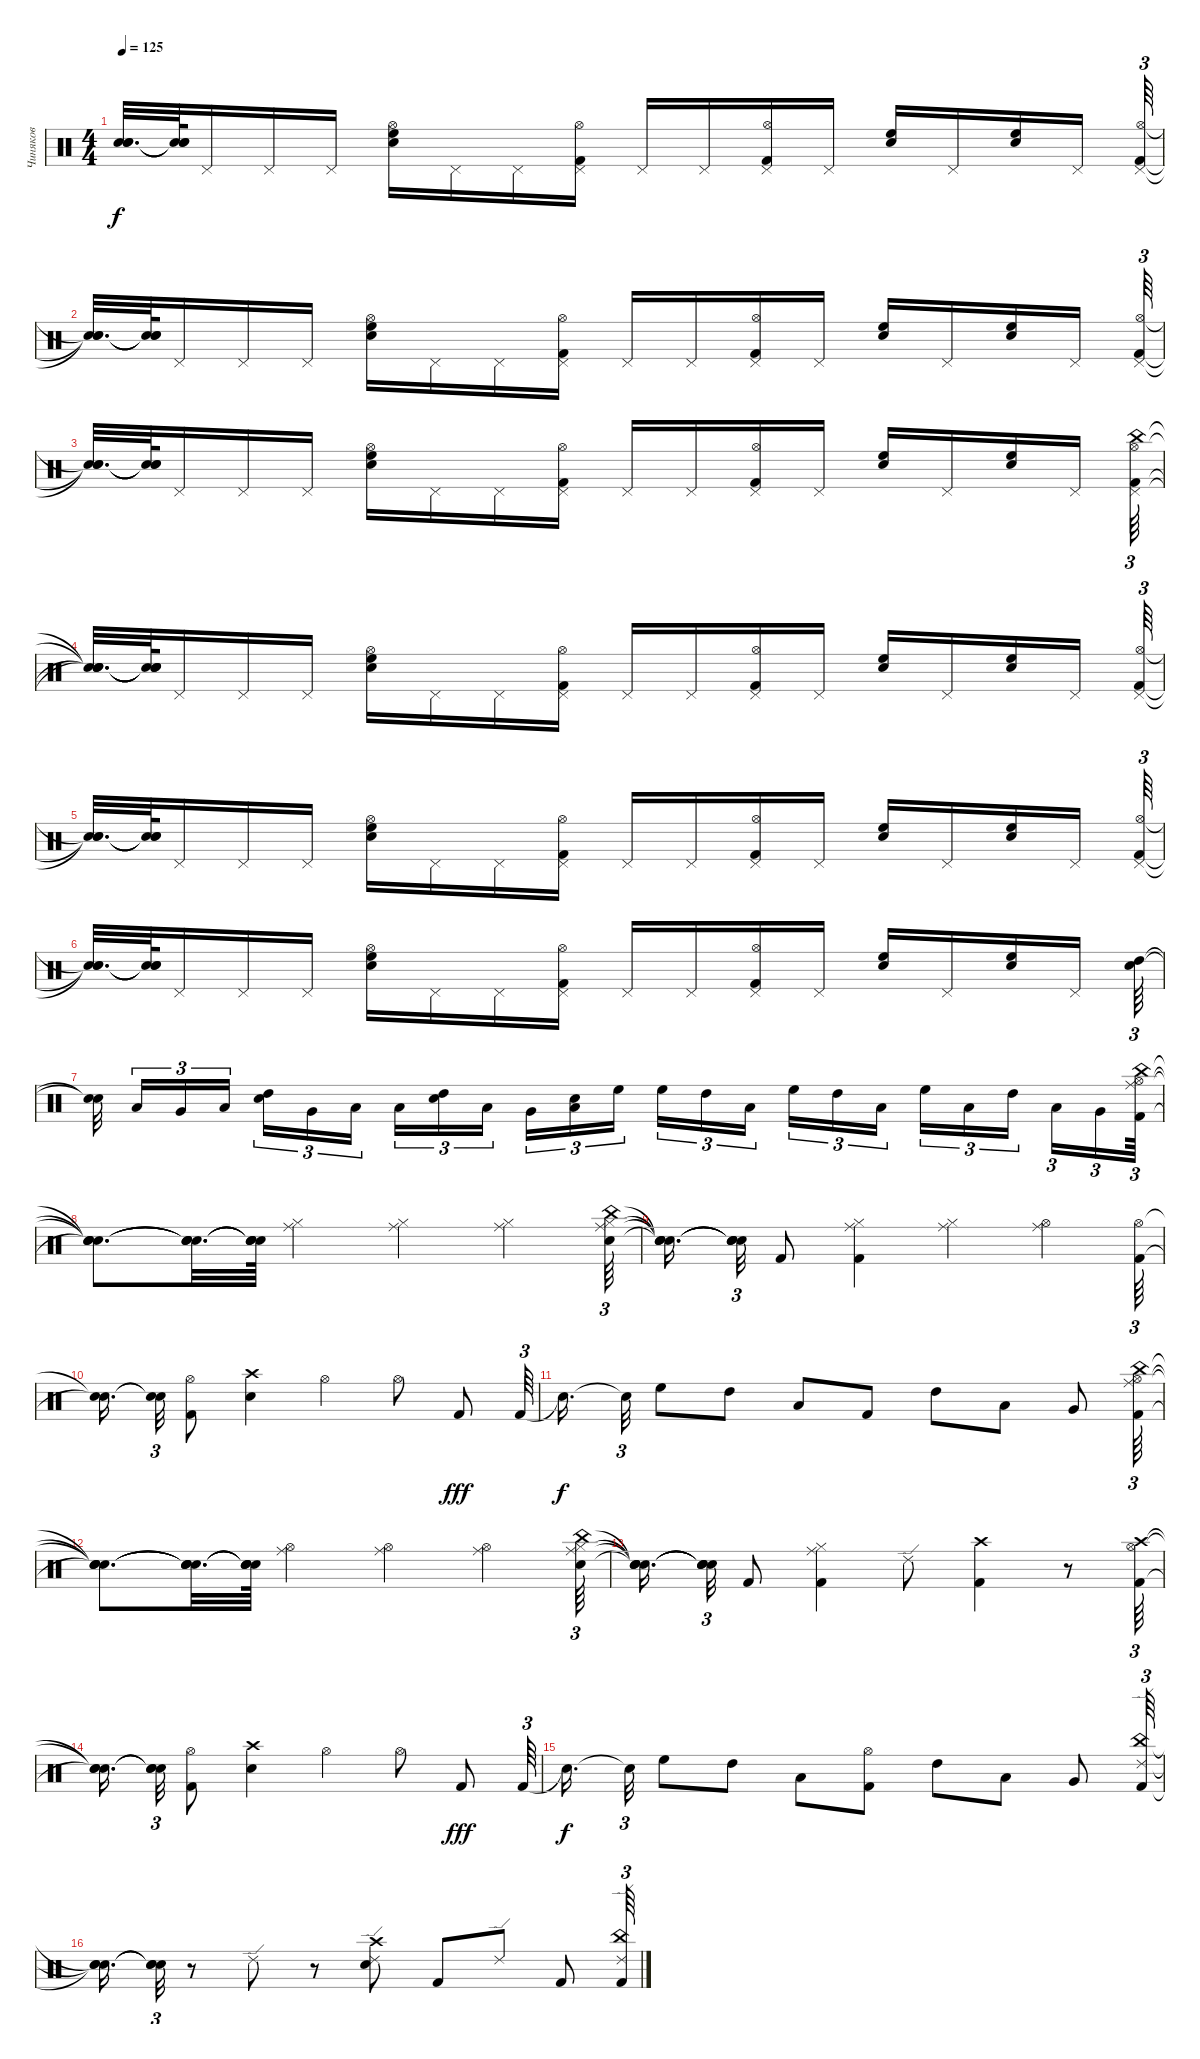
\track ("Чиняков" "Чиняков") {instrument percussion}
\staff {score}
\articulation defaults
\ts (4 4)
\tempo 125
\clef neutral
\ks c
("Snare (hit)"{t} "Snare (hit)"{t} "Snare (hit)"{t}).32{d dy f} ("Snare (hit)"{t} "Snare (hit)"{t} "Snare (hit)"{t}).64 "Pedal Hi-Hat (hit)".16 "Pedal Hi-Hat (hit)".16 "Pedal Hi-Hat (hit)".16 ("Electric Snare (hit)" "High Floor Tom (hit)" "Hi-Hat (open)").16 "Pedal Hi-Hat (hit)".16 "Pedal Hi-Hat (hit)".16 ("Pedal Hi-Hat (hit)" "Kick (hit) 2" "Hi-Hat (open)").16 "Pedal Hi-Hat (hit)".16 "Pedal Hi-Hat (hit)".16 ("Pedal Hi-Hat (hit)" "Kick (hit) 2" "Hi-Hat (open)").16 "Pedal Hi-Hat (hit)".16 ("High Floor Tom (hit)" "Electric Snare (hit)").16 "Pedal Hi-Hat (hit)".16 ("High Floor Tom (hit)" "Electric Snare (hit)").16 "Pedal Hi-Hat (hit)".16 ("Pedal Hi-Hat (hit)" "Kick (hit) 2" "Hi-Hat (open)").64{tu (3 2)} |
("Snare (hit)"{t} "Snare (hit)"{t} "Snare (hit)"{t}).32{d} ("Snare (hit)"{t} "Snare (hit)"{t} "Snare (hit)"{t}).64 "Pedal Hi-Hat (hit)".16 "Pedal Hi-Hat (hit)".16 "Pedal Hi-Hat (hit)".16 ("Electric Snare (hit)" "High Floor Tom (hit)" "Hi-Hat (open)").16 "Pedal Hi-Hat (hit)".16 "Pedal Hi-Hat (hit)".16 ("Pedal Hi-Hat (hit)" "Kick (hit) 2" "Hi-Hat (open)").16 "Pedal Hi-Hat (hit)".16 "Pedal Hi-Hat (hit)".16 ("Pedal Hi-Hat (hit)" "Kick (hit) 2" "Hi-Hat (open)").16 "Pedal Hi-Hat (hit)".16 ("High Floor Tom (hit)" "Electric Snare (hit)").16 "Pedal Hi-Hat (hit)".16 ("High Floor Tom (hit)" "Electric Snare (hit)").16 "Pedal Hi-Hat (hit)".16 ("Pedal Hi-Hat (hit)" "Kick (hit) 2" "Hi-Hat (open)").64{tu (3 2)} |
("Snare (hit)"{t} "Snare (hit)"{t} "Snare (hit)"{t}).32{d} ("Snare (hit)"{t} "Snare (hit)"{t} "Snare (hit)"{t}).64 "Pedal Hi-Hat (hit)".16 "Pedal Hi-Hat (hit)".16 "Pedal Hi-Hat (hit)".16 ("Electric Snare (hit)" "High Floor Tom (hit)" "Hi-Hat (open)").16 "Pedal Hi-Hat (hit)".16 "Pedal Hi-Hat (hit)".16 ("Pedal Hi-Hat (hit)" "Kick (hit) 2" "Hi-Hat (open)").16 "Pedal Hi-Hat (hit)".16 "Pedal Hi-Hat (hit)".16 ("Pedal Hi-Hat (hit)" "Kick (hit) 2" "Hi-Hat (open)").16 "Pedal Hi-Hat (hit)".16 ("High Floor Tom (hit)" "Electric Snare (hit)").16 "Pedal Hi-Hat (hit)".16 ("High Floor Tom (hit)" "Electric Snare (hit)").16 "Pedal Hi-Hat (hit)".16 ("Pedal Hi-Hat (hit)" "Kick (hit) 2" "Hi-Hat (open)" "China (hit)").64{tu (3 2)} |
("Snare (hit)"{t} "Snare (hit)"{t} "Snare (hit)"{t} "Snare (hit)"{t}).32{d} ("Snare (hit)"{t} "Snare (hit)"{t} "Snare (hit)"{t} "Snare (hit)"{t}).64 "Pedal Hi-Hat (hit)".16 "Pedal Hi-Hat (hit)".16 "Pedal Hi-Hat (hit)".16 ("Electric Snare (hit)" "High Floor Tom (hit)" "Hi-Hat (open)").16 "Pedal Hi-Hat (hit)".16 "Pedal Hi-Hat (hit)".16 ("Pedal Hi-Hat (hit)" "Kick (hit) 2" "Hi-Hat (open)").16 "Pedal Hi-Hat (hit)".16 "Pedal Hi-Hat (hit)".16 ("Pedal Hi-Hat (hit)" "Kick (hit) 2" "Hi-Hat (open)").16 "Pedal Hi-Hat (hit)".16 ("High Floor Tom (hit)" "Electric Snare (hit)").16 "Pedal Hi-Hat (hit)".16 ("High Floor Tom (hit)" "Electric Snare (hit)").16 "Pedal Hi-Hat (hit)".16 ("Pedal Hi-Hat (hit)" "Kick (hit) 2" "Hi-Hat (open)").64{tu (3 2)} |
("Snare (hit)"{t} "Snare (hit)"{t} "Snare (hit)"{t}).32{d} ("Snare (hit)"{t} "Snare (hit)"{t} "Snare (hit)"{t}).64 "Pedal Hi-Hat (hit)".16 "Pedal Hi-Hat (hit)".16 "Pedal Hi-Hat (hit)".16 ("Electric Snare (hit)" "High Floor Tom (hit)" "Hi-Hat (open)").16 "Pedal Hi-Hat (hit)".16 "Pedal Hi-Hat (hit)".16 ("Pedal Hi-Hat (hit)" "Kick (hit) 2" "Hi-Hat (open)").16 "Pedal Hi-Hat (hit)".16 "Pedal Hi-Hat (hit)".16 ("Pedal Hi-Hat (hit)" "Kick (hit) 2" "Hi-Hat (open)").16 "Pedal Hi-Hat (hit)".16 ("High Floor Tom (hit)" "Electric Snare (hit)").16 "Pedal Hi-Hat (hit)".16 ("High Floor Tom (hit)" "Electric Snare (hit)").16 "Pedal Hi-Hat (hit)".16 ("Pedal Hi-Hat (hit)" "Kick (hit) 2" "Hi-Hat (open)").64{tu (3 2)} |
("Snare (hit)"{t} "Snare (hit)"{t} "Snare (hit)"{t}).32{d} ("Snare (hit)"{t} "Snare (hit)"{t} "Snare (hit)"{t}).64 "Pedal Hi-Hat (hit)".16 "Pedal Hi-Hat (hit)".16 "Pedal Hi-Hat (hit)".16 ("Electric Snare (hit)" "High Floor Tom (hit)" "Hi-Hat (open)").16 "Pedal Hi-Hat (hit)".16 "Pedal Hi-Hat (hit)".16 ("Pedal Hi-Hat (hit)" "Kick (hit) 2" "Hi-Hat (open)").16 "Pedal Hi-Hat (hit)".16 "Pedal Hi-Hat (hit)".16 ("Pedal Hi-Hat (hit)" "Kick (hit) 2" "Hi-Hat (open)").16 "Pedal Hi-Hat (hit)".16 ("High Floor Tom (hit)" "Electric Snare (hit)").16 "Pedal Hi-Hat (hit)".16 ("High Floor Tom (hit)" "Electric Snare (hit)").16 "Pedal Hi-Hat (hit)".16 ("High Tom (hit)" "Electric Snare (hit)").64{tu (3 2)} |
("Snare (hit)"{t} "Snare (hit)"{t}).32{beam splitsecondary} "Low Tom (hit)".16{tu (3 2)} "Very Low Tom (hit)".16{tu (3 2)} "Low Floor Tom (hit)".16{tu (3 2) beam splitsecondary} ("High Tom (hit)" "Electric Snare (hit)").16{tu (3 2)} "Very Low Tom (hit)".16{tu (3 2)} "Low Tom (hit)".16{tu (3 2)} "Low Floor Tom (hit)".16{tu (3 2)} ("High Tom (hit)" "Electric Snare (hit)").16{tu (3 2)} "Low Tom (hit)".16{tu (3 2) beam splitsecondary} "Very Low Tom (hit)".16{tu (3 2)} ("Low Floor Tom (hit)" "Electric Snare (hit)").16{tu (3 2)} "High Floor Tom (hit)".16{tu (3 2)} "High Floor Tom (hit)".16{tu (3 2)} "High Tom (hit)".16{tu (3 2)} "Low Tom (hit)".16{tu (3 2) beam splitsecondary} "High Floor Tom (hit)".16{tu (3 2)} "High Tom (hit)".16{tu (3 2)} "Low Tom (hit)".16{tu (3 2)} "High Floor Tom (hit)".16{tu (3 2)} "Low Tom (hit)".16{tu (3 2)} "High Tom (hit)".16{tu (3 2) beam splitsecondary} "Low Tom (hit)".16{tu (3 2)} "Very Low Tom (hit)".16{tu (3 2)} ("Kick (hit) 2" "China (hit)" "Hi-Hat (open)" "Ride (middle)").64{tu (3 2)} |
("Snare (hit)"{t} "Snare (hit)"{t} "Snare (hit)"{t} "Snare (hit)"{t}).8{d} ("Snare (hit)"{t} "Snare (hit)"{t} "Snare (hit)"{t} "Snare (hit)"{t}).32{d} ("Snare (hit)"{t} "Snare (hit)"{t} "Snare (hit)"{t} "Snare (hit)"{t}).64 ("Hi-Hat (closed)" "Ride (middle)").4 ("Hi-Hat (closed)" "Ride (middle)").4 ("Hi-Hat (closed)" "Ride (middle)").4 ("Electric Snare (hit)" "China (hit)" "Hi-Hat (closed)" "Ride (middle)").64{tu (3 2)} |
("Snare (hit)"{t} "Snare (hit)"{t} "Snare (hit)"{t} "Snare (hit)"{t}).16{d beam splitsecondary} ("Snare (hit)"{t} "Snare (hit)"{t} "Snare (hit)"{t} "Snare (hit)"{t}).32{tu (3 2)} "Kick (hit) 2".8 ("Kick (hit) 2" "Hi-Hat (closed)" "Ride (middle)").4 ("Hi-Hat (closed)" "Ride (middle)").4 ("Hi-Hat (open)" "Ride (middle)").4 ("Kick (hit) 2" "Hi-Hat (open)").64{tu (3 2)} |
("Snare (hit)"{t} "Snare (hit)"{t}).16{d beam splitsecondary} ("Snare (hit)"{t} "Snare (hit)"{t}).32{tu (3 2)} ("Kick (hit) 2" "Hi-Hat (open)").8 ("Electric Snare (hit)" "Crash high (hit)").4 "Hi-Hat (open)".4 "Hi-Hat (open)".8 "Kick (hit) 2".8{dy fff} "Kick (hit) 2".64{tu (3 2)} |
"Snare (hit)"{t}.16{d dy f beam splitsecondary} "Snare (hit)"{t}.32{tu (3 2)} "High Floor Tom (hit)".8 "High Tom (hit)".8 "Low Tom (hit)".8 "Kick (hit) 2".8 "High Tom (hit)".8 "Low Tom (hit)".8 "Very Low Tom (hit)".8 ("Kick (hit) 2" "China (hit)" "Hi-Hat (open)" "Ride (middle)").64{tu (3 2)} |
("Snare (hit)"{t} "Snare (hit)"{t} "Snare (hit)"{t} "Snare (hit)"{t}).8{d} ("Snare (hit)"{t} "Snare (hit)"{t} "Snare (hit)"{t} "Snare (hit)"{t}).32{d} ("Snare (hit)"{t} "Snare (hit)"{t} "Snare (hit)"{t} "Snare (hit)"{t}).64 ("Hi-Hat (open)" "Ride (middle)").4 ("Hi-Hat (open)" "Ride (middle)").4 ("Hi-Hat (open)" "Ride (middle)").4 ("Electric Snare (hit)" "China (hit)" "Hi-Hat (closed)" "Ride (middle)").64{tu (3 2)} |
("Snare (hit)"{t} "Snare (hit)"{t} "Snare (hit)"{t} "Snare (hit)"{t}).16{d beam splitsecondary} ("Snare (hit)"{t} "Snare (hit)"{t} "Snare (hit)"{t} "Snare (hit)"{t}).32{tu (3 2)} "Kick (hit) 2".8 ("Kick (hit) 2" "Hi-Hat (closed)" "Ride (middle)").4 "Ride (edge) 2".8 ("Crash high (hit)" "Kick (hit) 2").4 r.8 ("Kick (hit) 2" "Hi-Hat (open)" "Crash high (hit)").64{tu (3 2)} |
("Snare (hit)"{t} "Snare (hit)"{t} "Snare (hit)"{t}).16{d beam splitsecondary} ("Snare (hit)"{t} "Snare (hit)"{t} "Snare (hit)"{t}).32{tu (3 2)} ("Kick (hit) 2" "Hi-Hat (open)").8 ("Electric Snare (hit)" "Crash high (hit)").4 "Hi-Hat (open)".4 "Hi-Hat (open)".8 "Kick (hit) 2".8{dy fff} "Kick (hit) 2".64{tu (3 2)} |
"Snare (hit)"{t}.16{d dy f beam splitsecondary} "Snare (hit)"{t}.32{tu (3 2)} "High Floor Tom (hit)".8 "High Tom (hit)".8 "Low Tom (hit)".8 ("Kick (hit) 2" "Hi-Hat (open)").8 "High Tom (hit)".8 "Low Tom (hit)".8 "Very Low Tom (hit)".8 ("Kick (hit) 2" "China (hit)" "Ride (edge) 2").64{tu (3 2)} |
("Snare (hit)"{t} "Snare (hit)"{t} "Snare (hit)"{t}).16{d} ("Snare (hit)"{t} "Snare (hit)"{t} "Snare (hit)"{t}).32{tu (3 2)} r.8 "Ride (edge) 2".8 r.8 ("Ride (edge) 2" "Electric Snare (hit)" "Crash high (hit)").8 "Kick (hit) 2".8 "Ride (edge) 2".8 "Kick (hit) 2".8 ("Kick (hit) 2" "China (hit)" "Ride (edge) 2").64{tu (3 2)}
